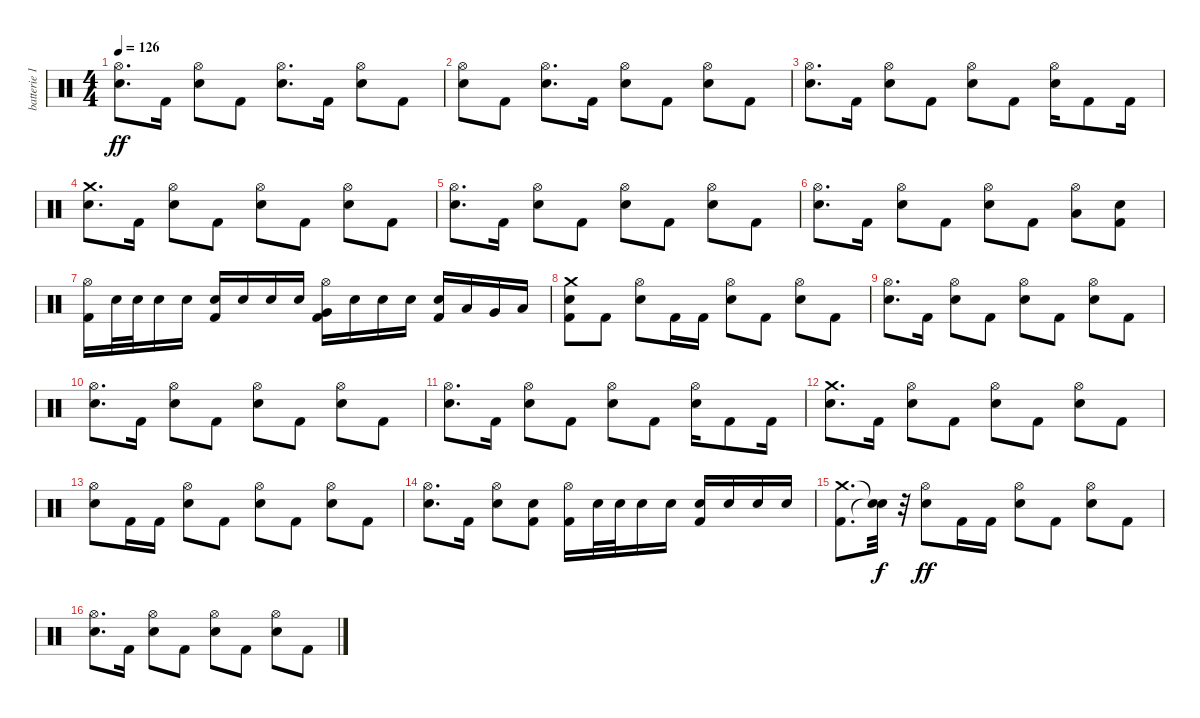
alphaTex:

\track ("batterie 1" "batterie 1") {instrument percussion}
\staff {score}
\articulation defaults
\ts (4 4)
\tempo 126
\clef neutral
\ks c
("Electric Snare (hit)" "Hi-Hat (open)").8{d dy ff} "Kick (hit) 2".16 ("Electric Snare (hit)" "Hi-Hat (open)").8 "Kick (hit) 2".8 ("Electric Snare (hit)" "Hi-Hat (open)").8{d} "Kick (hit) 2".16 ("Electric Snare (hit)" "Hi-Hat (open)").8 "Kick (hit) 2".8 |
("Electric Snare (hit)" "Hi-Hat (open)").8 "Kick (hit) 2".8 ("Electric Snare (hit)" "Hi-Hat (open)").8{d} "Kick (hit) 2".16 ("Electric Snare (hit)" "Hi-Hat (open)").8 "Kick (hit) 2".8 ("Electric Snare (hit)" "Hi-Hat (open)").8 "Kick (hit) 2".8 |
("Electric Snare (hit)" "Hi-Hat (open)").8{d} "Kick (hit) 2".16 ("Electric Snare (hit)" "Hi-Hat (open)").8 "Kick (hit) 2".8 ("Electric Snare (hit)" "Hi-Hat (open)").8 "Kick (hit) 2".8 ("Electric Snare (hit)" "Hi-Hat (open)").16 "Kick (hit) 2".8 "Kick (hit) 2".16 |
("Electric Snare (hit)" "Crash medium (hit)").8{d} "Kick (hit) 2".16 ("Electric Snare (hit)" "Hi-Hat (open)").8 "Kick (hit) 2".8 ("Electric Snare (hit)" "Hi-Hat (open)").8 "Kick (hit) 2".8 ("Electric Snare (hit)" "Hi-Hat (open)").8 "Kick (hit) 2".8 |
("Electric Snare (hit)" "Hi-Hat (open)").8{d} "Kick (hit) 2".16 ("Electric Snare (hit)" "Hi-Hat (open)").8 "Kick (hit) 2".8 ("Electric Snare (hit)" "Hi-Hat (open)").8 "Kick (hit) 2".8 ("Electric Snare (hit)" "Hi-Hat (open)").8 "Kick (hit) 2".8 |
("Electric Snare (hit)" "Hi-Hat (open)").8{d} "Kick (hit) 2".16 ("Electric Snare (hit)" "Hi-Hat (open)").8 "Kick (hit) 2".8 ("Electric Snare (hit)" "Hi-Hat (open)").8 "Kick (hit) 2".8 ("Low Floor Tom (hit)" "Hi-Hat (open)").8 ("Kick (hit) 2" "Electric Snare (hit)").8 |
("Kick (hit) 2" "Hi-Hat (open)").16 "Electric Snare (hit)".32 "Electric Snare (hit)".32 "Electric Snare (hit)".16 "Electric Snare (hit)".16 ("Kick (hit) 2" "Electric Snare (hit)").16 "Electric Snare (hit)".16 "Electric Snare (hit)".16 "Electric Snare (hit)".16 ("Kick (hit) 2" "Very Low Tom (hit)" "Hi-Hat (open)").16 "Electric Snare (hit)".16 "Electric Snare (hit)".16 "Electric Snare (hit)".16 ("Kick (hit) 2" "Electric Snare (hit)").16 "Low Tom (hit)".16 "Very Low Tom (hit)".16 "Low Floor Tom (hit)".16 |
("Kick (hit) 2" "Electric Snare (hit)" "Crash medium (hit)").8 "Kick (hit) 2".8 ("Electric Snare (hit)" "Hi-Hat (open)").8 "Kick (hit) 2".16 "Kick (hit) 2".16 ("Electric Snare (hit)" "Hi-Hat (open)").8 "Kick (hit) 2".8 ("Electric Snare (hit)" "Hi-Hat (open)").8 "Kick (hit) 2".8 |
("Electric Snare (hit)" "Hi-Hat (open)").8{d} "Kick (hit) 2".16 ("Electric Snare (hit)" "Hi-Hat (open)").8 "Kick (hit) 2".8 ("Electric Snare (hit)" "Hi-Hat (open)").8 "Kick (hit) 2".8 ("Electric Snare (hit)" "Hi-Hat (open)").8 "Kick (hit) 2".8 |
("Electric Snare (hit)" "Hi-Hat (open)").8{d} "Kick (hit) 2".16 ("Electric Snare (hit)" "Hi-Hat (open)").8 "Kick (hit) 2".8 ("Electric Snare (hit)" "Hi-Hat (open)").8 "Kick (hit) 2".8 ("Electric Snare (hit)" "Hi-Hat (open)").8 "Kick (hit) 2".8 |
("Electric Snare (hit)" "Hi-Hat (open)").8{d} "Kick (hit) 2".16 ("Electric Snare (hit)" "Hi-Hat (open)").8 "Kick (hit) 2".8 ("Electric Snare (hit)" "Hi-Hat (open)").8 "Kick (hit) 2".8 ("Electric Snare (hit)" "Hi-Hat (open)").16 "Kick (hit) 2".8 "Kick (hit) 2".16 |
("Electric Snare (hit)" "Crash medium (hit)").8{d} "Kick (hit) 2".16 ("Electric Snare (hit)" "Hi-Hat (open)").8 "Kick (hit) 2".8 ("Electric Snare (hit)" "Hi-Hat (open)").8 "Kick (hit) 2".8 ("Electric Snare (hit)" "Hi-Hat (open)").8 "Kick (hit) 2".8 |
("Electric Snare (hit)" "Hi-Hat (open)").8 "Kick (hit) 2".16 "Kick (hit) 2".16 ("Electric Snare (hit)" "Hi-Hat (open)").8 "Kick (hit) 2".8 ("Electric Snare (hit)" "Hi-Hat (open)").8 "Kick (hit) 2".8 ("Electric Snare (hit)" "Hi-Hat (open)").8 "Kick (hit) 2".8 |
("Electric Snare (hit)" "Hi-Hat (open)").8{d} "Kick (hit) 2".16 ("Electric Snare (hit)" "Hi-Hat (open)").8 ("Kick (hit) 2" "Electric Snare (hit)").8 ("Kick (hit) 2" "Hi-Hat (open)").16 "Electric Snare (hit)".32 "Electric Snare (hit)".32 "Electric Snare (hit)".16 "Electric Snare (hit)".16 ("Kick (hit) 2" "Electric Snare (hit)").16 "Electric Snare (hit)".16 "Electric Snare (hit)".16 "Electric Snare (hit)".16 |
("Kick (hit) 2" "Crash medium (hit)").8{d} ("Snare (hit)"{t} "Snare (hit)"{t}).32{dy f} r.32 ("Electric Snare (hit)" "Hi-Hat (open)").8{dy ff} "Kick (hit) 2".16 "Kick (hit) 2".16 ("Electric Snare (hit)" "Hi-Hat (open)").8 "Kick (hit) 2".8 ("Electric Snare (hit)" "Hi-Hat (open)").8 "Kick (hit) 2".8 |
("Electric Snare (hit)" "Hi-Hat (open)").8{d} "Kick (hit) 2".16 ("Electric Snare (hit)" "Hi-Hat (open)").8 "Kick (hit) 2".8 ("Electric Snare (hit)" "Hi-Hat (open)").8 "Kick (hit) 2".8 ("Electric Snare (hit)" "Hi-Hat (open)").8 "Kick (hit) 2".8
